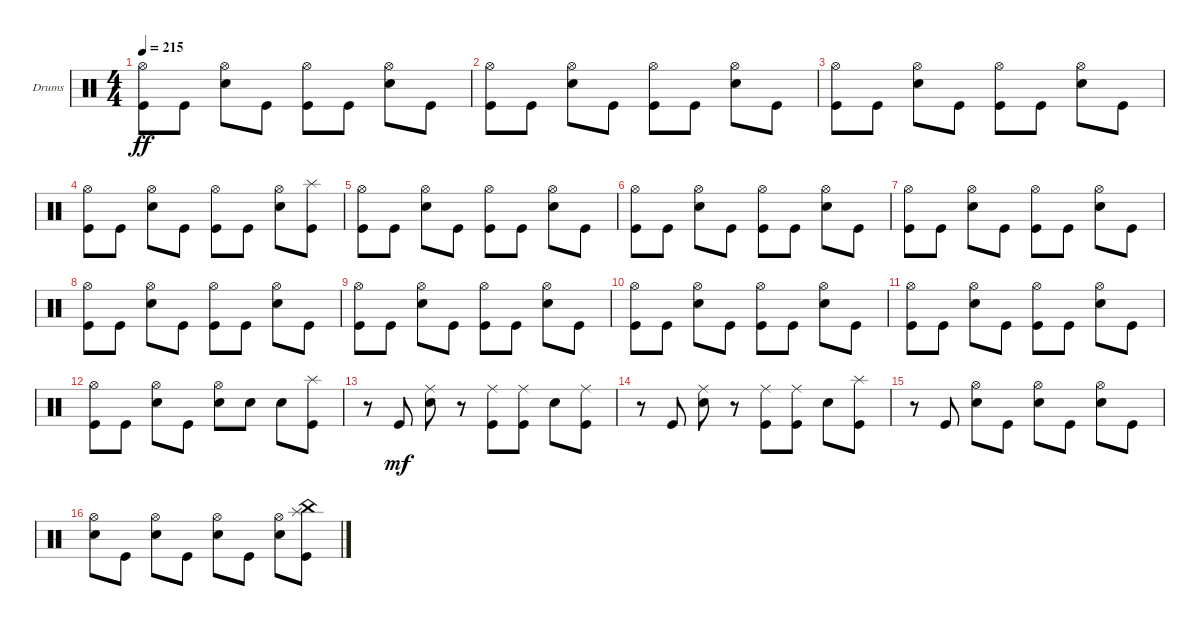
\bracketExtendMode groupsimilarinstruments
\firstSystemTrackNameOrientation horizontal
\otherSystemsTrackNameOrientation horizontal
\track ("Drumkit" "Drums") {instrument percussion}
\staff {score}
\articulation defaults
\ts (4 4)
\tempo 215
\clef neutral
\ks c
("Kick (hit)" "Hi-Hat (open)").8{dy ff} "Kick (hit)".8 ("Snare (hit) 2" "Hi-Hat (open)").8 "Kick (hit)".8 ("Kick (hit)" "Hi-Hat (open)").8 "Kick (hit)".8 ("Snare (hit) 2" "Hi-Hat (open)").8 "Kick (hit)".8 |
("Kick (hit)" "Hi-Hat (open)").8 "Kick (hit)".8 ("Snare (hit) 2" "Hi-Hat (open)").8 "Kick (hit)".8 ("Kick (hit)" "Hi-Hat (open)").8 "Kick (hit)".8 ("Snare (hit) 2" "Hi-Hat (open)").8 "Kick (hit)".8 |
("Kick (hit)" "Hi-Hat (open)").8 "Kick (hit)".8 ("Snare (hit) 2" "Hi-Hat (open)").8 "Kick (hit)".8 ("Kick (hit)" "Hi-Hat (open)").8 "Kick (hit)".8 ("Snare (hit) 2" "Hi-Hat (open)").8 "Kick (hit)".8 |
("Kick (hit)" "Hi-Hat (open)").8 "Kick (hit)".8 ("Snare (hit) 2" "Hi-Hat (open)").8 "Kick (hit)".8 ("Kick (hit)" "Hi-Hat (open)").8 "Kick (hit)".8 ("Snare (hit) 2" "Hi-Hat (open)").8 ("Kick (hit)" "Splash (hit)").8 |
("Kick (hit)" "Hi-Hat (open)").8 "Kick (hit)".8 ("Snare (hit) 2" "Hi-Hat (open)").8 "Kick (hit)".8 ("Kick (hit)" "Hi-Hat (open)").8 "Kick (hit)".8 ("Snare (hit) 2" "Hi-Hat (open)").8 "Kick (hit)".8 |
("Kick (hit)" "Hi-Hat (open)").8 "Kick (hit)".8 ("Snare (hit) 2" "Hi-Hat (open)").8 "Kick (hit)".8 ("Kick (hit)" "Hi-Hat (open)").8 "Kick (hit)".8 ("Snare (hit) 2" "Hi-Hat (open)").8 "Kick (hit)".8 |
("Kick (hit)" "Hi-Hat (open)").8 "Kick (hit)".8 ("Snare (hit) 2" "Hi-Hat (open)").8 "Kick (hit)".8 ("Kick (hit)" "Hi-Hat (open)").8 "Kick (hit)".8 ("Snare (hit) 2" "Hi-Hat (open)").8 "Kick (hit)".8 |
("Kick (hit)" "Hi-Hat (open)").8 "Kick (hit)".8 ("Snare (hit) 2" "Hi-Hat (open)").8 "Kick (hit)".8 ("Kick (hit)" "Hi-Hat (open)").8 "Kick (hit)".8 ("Snare (hit) 2" "Hi-Hat (open)").8 "Kick (hit)".8 |
("Kick (hit)" "Hi-Hat (open)").8 "Kick (hit)".8 ("Snare (hit) 2" "Hi-Hat (open)").8 "Kick (hit)".8 ("Kick (hit)" "Hi-Hat (open)").8 "Kick (hit)".8 ("Snare (hit) 2" "Hi-Hat (open)").8 "Kick (hit)".8 |
("Kick (hit)" "Hi-Hat (open)").8 "Kick (hit)".8 ("Snare (hit) 2" "Hi-Hat (open)").8 "Kick (hit)".8 ("Kick (hit)" "Hi-Hat (open)").8 "Kick (hit)".8 ("Snare (hit) 2" "Hi-Hat (open)").8 "Kick (hit)".8 |
("Kick (hit)" "Hi-Hat (open)").8 "Kick (hit)".8 ("Snare (hit) 2" "Hi-Hat (open)").8 "Kick (hit)".8 ("Kick (hit)" "Hi-Hat (open)").8 "Kick (hit)".8 ("Snare (hit) 2" "Hi-Hat (open)").8 "Kick (hit)".8 |
("Kick (hit)" "Hi-Hat (open)").8 "Kick (hit)".8 ("Snare (hit) 2" "Hi-Hat (open)").8 "Kick (hit)".8 ("Hi-Hat (open)" "Snare (hit) 2").8 "Snare (hit) 2".8 "Snare (hit) 2".8 ("Kick (hit)" "Splash (hit)").8 |
r.8 "Kick (hit)".8{dy mf} ("Snare (hit) 2" "Ride (middle)").8 r.8 ("Kick (hit)" "Ride (middle)").8 ("Kick (hit)" "Ride (middle)").8 "Snare (hit) 2".8 ("Kick (hit)" "Ride (middle)").8 |
r.8 "Kick (hit)".8 ("Snare (hit) 2" "Ride (middle)").8 r.8 ("Kick (hit)" "Ride (middle)").8 ("Kick (hit)" "Ride (middle)").8 "Snare (hit) 2".8 ("Kick (hit)" "Splash (hit)").8 |
r.8 "Kick (hit)".8 ("Snare (hit) 2" "Hi-Hat (open)").8 "Kick (hit)".8 ("Snare (hit) 2" "Hi-Hat (open)").8 "Kick (hit)".8 ("Snare (hit) 2" "Hi-Hat (open)").8 "Kick (hit)".8 |
("Snare (hit) 2" "Hi-Hat (open)").8 "Kick (hit)".8 ("Snare (hit) 2" "Hi-Hat (open)").8 "Kick (hit)".8 ("Snare (hit) 2" "Hi-Hat (open)").8 "Kick (hit)".8 ("Snare (hit) 2" "Hi-Hat (open)").8 ("Kick (hit)" "China (hit)" "Splash (hit)").8
